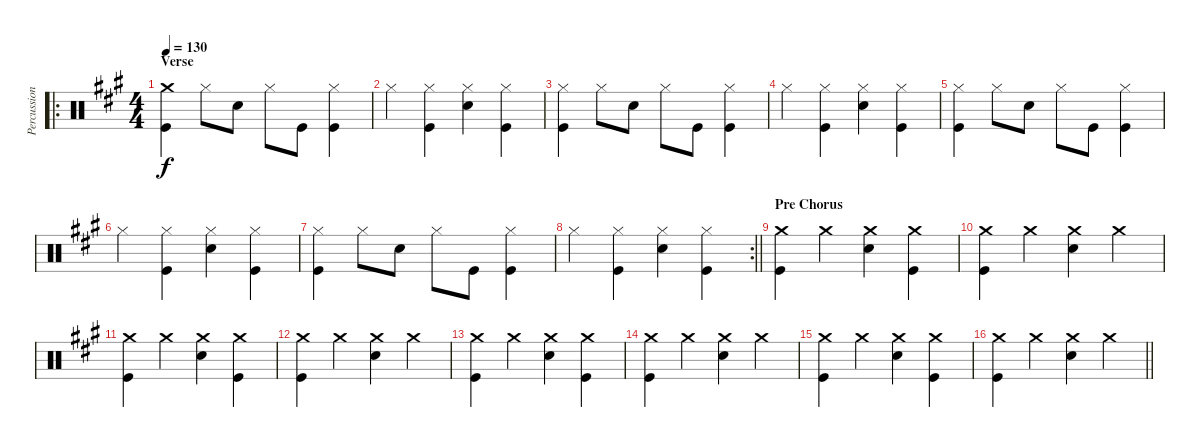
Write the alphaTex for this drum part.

\track ("Percussion" "Percussion") {instrument percussion}
\staff {score}
\articulation defaults
\ro
\ts (4 4)
\section ("" "Verse")
\tempo 130
\clef neutral
\ks a
("Crash medium (hit)" "Kick (hit)").4{dy f} "Hi-Hat (closed)".8 "Snare (hit) 2".8 "Hi-Hat (closed)".8 "Kick (hit)".8 ("Hi-Hat (closed)" "Kick (hit)").4 |
"Hi-Hat (closed)".4 ("Hi-Hat (closed)" "Kick (hit)").4 ("Hi-Hat (closed)" "Snare (hit) 2").4 ("Hi-Hat (closed)" "Kick (hit)").4 |
("Hi-Hat (closed)" "Kick (hit)").4 "Hi-Hat (closed)".8 "Snare (hit) 2".8 "Hi-Hat (closed)".8 "Kick (hit)".8 ("Hi-Hat (closed)" "Kick (hit)").4 |
"Hi-Hat (closed)".4 ("Hi-Hat (closed)" "Kick (hit)").4 ("Hi-Hat (closed)" "Snare (hit) 2").4 ("Hi-Hat (closed)" "Kick (hit)").4 |
("Hi-Hat (closed)" "Kick (hit)").4 "Hi-Hat (closed)".8 "Snare (hit) 2".8 "Hi-Hat (closed)".8 "Kick (hit)".8 ("Hi-Hat (closed)" "Kick (hit)").4 |
"Hi-Hat (closed)".4 ("Hi-Hat (closed)" "Kick (hit)").4 ("Hi-Hat (closed)" "Snare (hit) 2").4 ("Hi-Hat (closed)" "Kick (hit)").4 |
("Hi-Hat (closed)" "Kick (hit)").4 "Hi-Hat (closed)".8 "Snare (hit) 2".8 "Hi-Hat (closed)".8 "Kick (hit)".8 ("Hi-Hat (closed)" "Kick (hit)").4 |
\rc 2
\barLineRight lightlight "Hi-Hat (closed)".4
("Hi-Hat (closed)" "Kick (hit)").4 ("Hi-Hat (closed)" "Snare (hit) 2").4 ("Hi-Hat (closed)" "Kick (hit)").4 |
\section ("" "Pre Chorus")
("Crash medium (hit)" "Kick (hit)").4 "Crash medium (hit)".4 ("Crash medium (hit)" "Snare (hit) 2").4 ("Crash medium (hit)" "Kick (hit)").4 |
("Crash medium (hit)" "Kick (hit)").4 "Crash medium (hit)".4 ("Crash medium (hit)" "Snare (hit) 2").4 "Crash medium (hit)".4 |
("Crash medium (hit)" "Kick (hit)").4 "Crash medium (hit)".4 ("Crash medium (hit)" "Snare (hit) 2").4 ("Crash medium (hit)" "Kick (hit)").4 |
("Crash medium (hit)" "Kick (hit)").4 "Crash medium (hit)".4 ("Crash medium (hit)" "Snare (hit) 2").4 "Crash medium (hit)".4 |
("Crash medium (hit)" "Kick (hit)").4 "Crash medium (hit)".4 ("Crash medium (hit)" "Snare (hit) 2").4 ("Crash medium (hit)" "Kick (hit)").4 |
("Crash medium (hit)" "Kick (hit)").4 "Crash medium (hit)".4 ("Crash medium (hit)" "Snare (hit) 2").4 "Crash medium (hit)".4 |
("Crash medium (hit)" "Kick (hit)").4 "Crash medium (hit)".4 ("Crash medium (hit)" "Snare (hit) 2").4 ("Crash medium (hit)" "Kick (hit)").4 |
\barLineRight lightlight
("Crash medium (hit)" "Kick (hit)").4 "Crash medium (hit)".4 ("Crash medium (hit)" "Snare (hit) 2").4 "Crash medium (hit)".4
